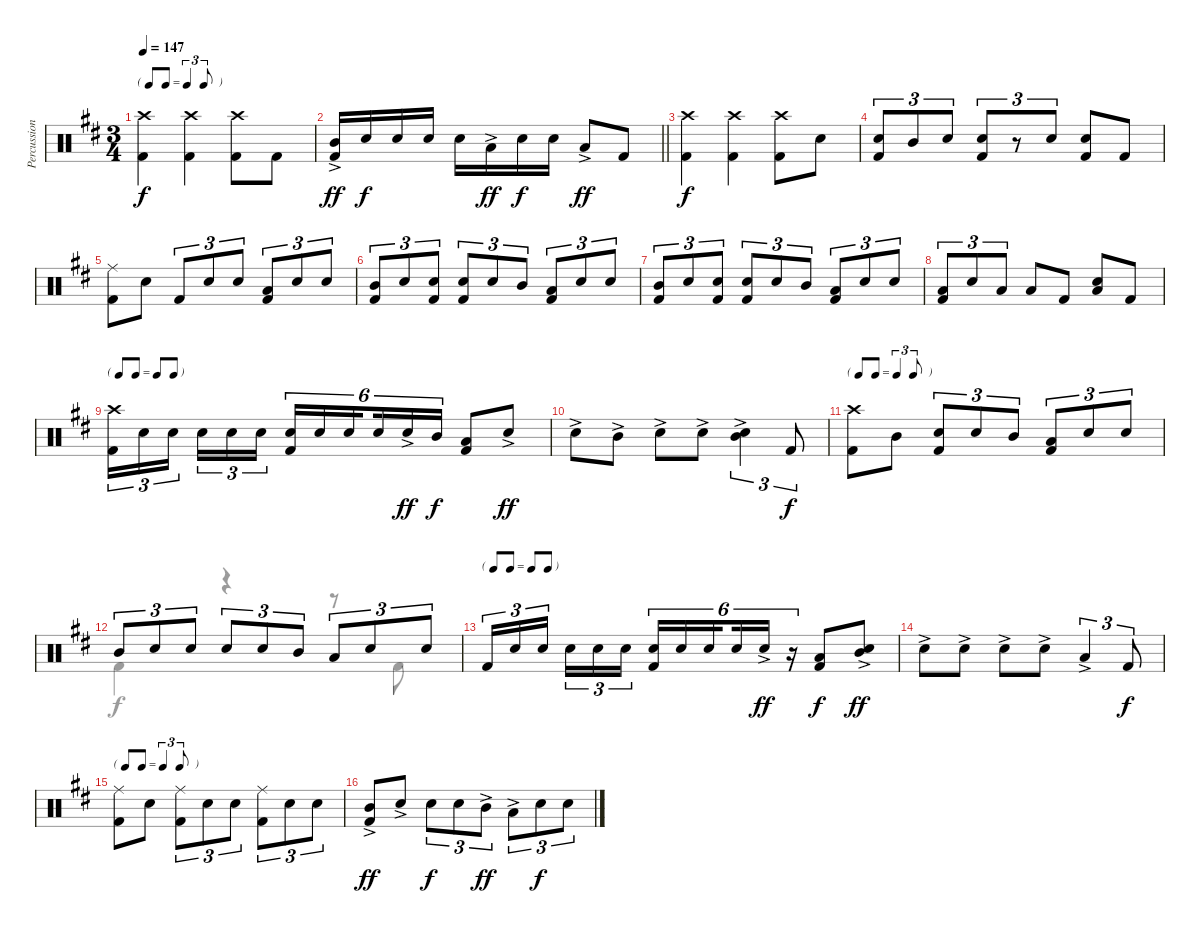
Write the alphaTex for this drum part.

\track ("Percussion" "Percussion") {instrument percussion}
\staff {score}
\articulation defaults
\voice
\ts (3 4)
\tf triplet8th
\tempo 147
\clef neutral
\ks d
("Crash high (hit)" "Kick (hit) 2").4{dy f} ("Crash high (hit)" "Kick (hit) 2").4 ("Crash high (hit)" "Kick (hit) 2").8 "Kick (hit) 2".8 |
\barLineRight lightlight
("Mid Tom (hit)"{ac} "Kick (hit) 2").16{dy ff} "Snare (hit) 2".16{dy f} "Snare (hit) 2".16 "Snare (hit) 2".16 "Snare (hit) 2".16 "Low Tom (hit)"{ac}.16{dy ff} "Snare (hit) 2".16{dy f} "Snare (hit) 2".16 "Low Tom (hit)"{ac}.8{dy ff} "Kick (hit) 2".8 |
("Crash high (hit)" "Kick (hit) 2").4{dy f} ("Crash high (hit)" "Kick (hit) 2").4 ("Crash high (hit)" "Kick (hit) 2").8 "Snare (hit) 2".8 |
("Snare (hit) 2" "Kick (hit) 2").8{tu (3 2)} "Mid Tom (hit)".8{tu (3 2)} "Snare (hit) 2".8{tu (3 2)} ("Snare (hit) 2" "Kick (hit) 2").8{tu (3 2)} r.8{tu (3 2)} "Snare (hit) 2".8{tu (3 2)} ("Snare (hit) 2" "Kick (hit) 2").8 "Kick (hit) 2".8 |
("Ride (middle)" "Kick (hit) 2").8 "Snare (hit) 2".8 "Kick (hit) 2".8{tu (3 2)} "Snare (hit) 2".8{tu (3 2)} "Snare (hit) 2".8{tu (3 2)} ("Low Tom (hit)" "Kick (hit) 2").8{tu (3 2)} "Snare (hit) 2".8{tu (3 2)} "Snare (hit) 2".8{tu (3 2)} |
("Mid Tom (hit)" "Kick (hit) 2").8{tu (3 2)} "Snare (hit) 2".8{tu (3 2)} ("Snare (hit) 2" "Kick (hit) 2").8{tu (3 2)} ("Snare (hit) 2" "Kick (hit) 2").8{tu (3 2)} "Snare (hit) 2".8{tu (3 2)} "Mid Tom (hit)".8{tu (3 2)} ("Low Floor Tom (hit)" "Kick (hit) 2").8{tu (3 2)} "Snare (hit) 2".8{tu (3 2)} "Snare (hit) 2".8{tu (3 2)} |
("Mid Tom (hit)" "Kick (hit) 2").8{tu (3 2)} "Snare (hit) 2".8{tu (3 2)} ("Snare (hit) 2" "Kick (hit) 2").8{tu (3 2)} ("Snare (hit) 2" "Kick (hit) 2").8{tu (3 2)} "Snare (hit) 2".8{tu (3 2)} "Mid Tom (hit)".8{tu (3 2)} ("Low Floor Tom (hit)" "Kick (hit) 2").8{tu (3 2)} "Snare (hit) 2".8{tu (3 2)} "Snare (hit) 2".8{tu (3 2)} |
("Low Floor Tom (hit)" "Kick (hit) 2").8{tu (3 2)} "Snare (hit) 2".8{tu (3 2)} "Low Tom (hit)".8{tu (3 2)} "Low Floor Tom (hit)".8 "Kick (hit) 2".8 ("Snare (hit) 2" "Low Floor Tom (hit)").8 "Kick (hit) 2".8 |
\tf none
("Crash high (hit)" "Kick (hit) 2").16{tu (3 2)} "Snare (hit) 2".16{tu (3 2)} "Snare (hit) 2".16{tu (3 2) beam splitsecondary} "Snare (hit) 2".16{tu (3 2)} "Snare (hit) 2".16{tu (3 2)} "Snare (hit) 2".16{tu (3 2)} ("Snare (hit) 2" "Kick (hit) 2").16{tu (6 4)} "Snare (hit) 2".16{tu (6 4)} "Snare (hit) 2".16{tu (6 4) beam splitsecondary} "Snare (hit) 2".16{tu (6 4)} "Snare (hit) 2"{ac}.16{tu (6 4) dy ff} "Mid Tom (hit)".16{tu (6 4) dy f} ("Low Tom (hit)" "Kick (hit) 2").8 "Snare (hit) 2"{ac}.8{dy ff} |
"Snare (hit) 2"{ac}.8 "Mid Tom (hit)"{ac}.8 "Snare (hit) 2"{ac}.8 "Snare (hit) 2"{ac}.8 ("Mid Tom (hit)"{ac} "Snare (hit) 2"{ac}).4{tu (3 2)} "Kick (hit) 2".8{tu (3 2) dy f} |
\tf triplet8th
("Crash high (hit)" "Kick (hit) 2").8 "Mid Tom (hit)".8 ("Snare (hit) 2" "Kick (hit) 2").8{tu (3 2)} "Snare (hit) 2".8{tu (3 2)} "Mid Tom (hit)".8{tu (3 2)} ("Low Tom (hit)" "Kick (hit) 2").8{tu (3 2)} "Snare (hit) 2".8{tu (3 2)} "Snare (hit) 2".8{tu (3 2)} |
"Mid Tom (hit)".8{tu (3 2)} "Snare (hit) 2".8{tu (3 2)} "Snare (hit) 2".8{tu (3 2)} "Snare (hit) 2".8{tu (3 2)} "Snare (hit) 2".8{tu (3 2)} "Mid Tom (hit)".8{tu (3 2)} "Low Tom (hit)".8{tu (3 2)} "Snare (hit) 2".8{tu (3 2)} "Snare (hit) 2".8{tu (3 2)} |
\tf none "Kick (hit) 2".16{tu (3 2)} "Snare (hit) 2".16{tu (3 2)} "Snare (hit) 2".16{tu (3 2) beam splitsecondary} "Snare (hit) 2".16{tu (3 2)} "Snare (hit) 2".16{tu (3 2)} "Snare (hit) 2".16{tu (3 2)}
("Snare (hit) 2" "Kick (hit) 2").16{tu (6 4)} "Snare (hit) 2".16{tu (6 4)} "Snare (hit) 2".16{tu (6 4) beam splitsecondary} "Snare (hit) 2".16{tu (6 4)} "Snare (hit) 2"{ac}.16{tu (6 4) dy ff} r.16{tu (6 4)} ("Low Tom (hit)" "Kick (hit) 2").8{dy f} ("Mid Tom (hit)" "Snare (hit) 2"{ac}).8{dy ff} |
"Snare (hit) 2"{ac}.8 "Snare (hit) 2"{ac}.8 "Snare (hit) 2"{ac}.8 "Snare (hit) 2"{ac}.8 "Low Floor Tom (hit)"{ac}.4{tu (3 2)} "Kick (hit) 2".8{tu (3 2) dy f} |
\tf triplet8th
("Ride (middle)" "Kick (hit) 2").8 "Snare (hit) 2".8 ("Ride (middle)" "Kick (hit) 2").8{tu (3 2)} "Snare (hit) 2".8{tu (3 2)} "Snare (hit) 2".8{tu (3 2)} ("Ride (middle)" "Kick (hit) 2").8{tu (3 2)} "Snare (hit) 2".8{tu (3 2)} "Snare (hit) 2".8{tu (3 2)} |
("Mid Tom (hit)"{ac} "Kick (hit) 2").8{dy ff} "Snare (hit) 2"{ac}.8 "Snare (hit) 2".8{tu (3 2) dy f} "Snare (hit) 2".8{tu (3 2)} "Mid Tom (hit)"{ac}.8{tu (3 2) dy ff} "Low Tom (hit)"{ac}.8{tu (3 2)} "Snare (hit) 2".8{tu (3 2) dy f} "Snare (hit) 2".8{tu (3 2)}
\voice
\clef neutral
\ottava regular
\simile none
\ks d
|
\barLineRight lightlight
|
|
|
|
|
|
|
|
|
|
"Kick (hit) 2".4 r.4 r.8 "Kick (hit) 2".8 |
|
|
|
